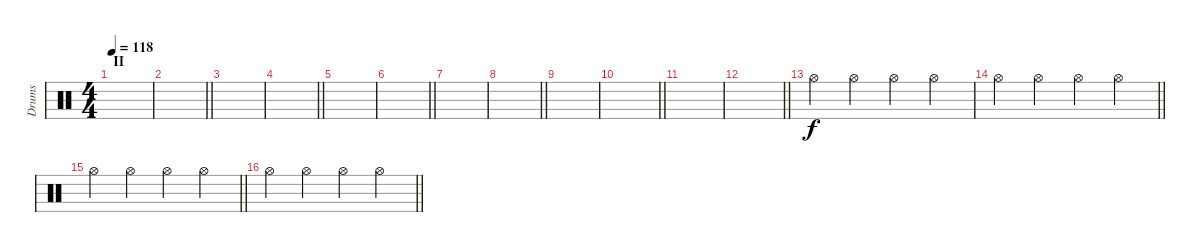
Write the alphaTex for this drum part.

\track ("Drums" "Drums") {instrument percussion}
\staff {score}
\articulation defaults
\ts (4 4)
\section ("" "II")
\tempo 118
\clef neutral
\ks c
|
\barLineRight lightlight
|
|
\barLineRight lightlight
|
|
\barLineRight lightlight
|
|
\barLineRight lightlight
|
|
\barLineRight lightlight
|
|
\barLineRight lightlight
|
"Hi-Hat (open)".4{volume 3} "Hi-Hat (open)".4 "Hi-Hat (open)".4{volume 4} "Hi-Hat (open)".4 |
\barLineRight lightlight "Hi-Hat (open)".4{volume 5} "Hi-Hat (open)".4 "Hi-Hat (open)".4{volume 6} "Hi-Hat (open)".4
|
\barLineRight lightlight "Hi-Hat (open)".4 "Hi-Hat (open)".4 "Hi-Hat (open)".4{volume 7} "Hi-Hat (open)".4
|
\barLineRight lightlight "Hi-Hat (open)".4 "Hi-Hat (open)".4 "Hi-Hat (open)".4 "Hi-Hat (open)".4
